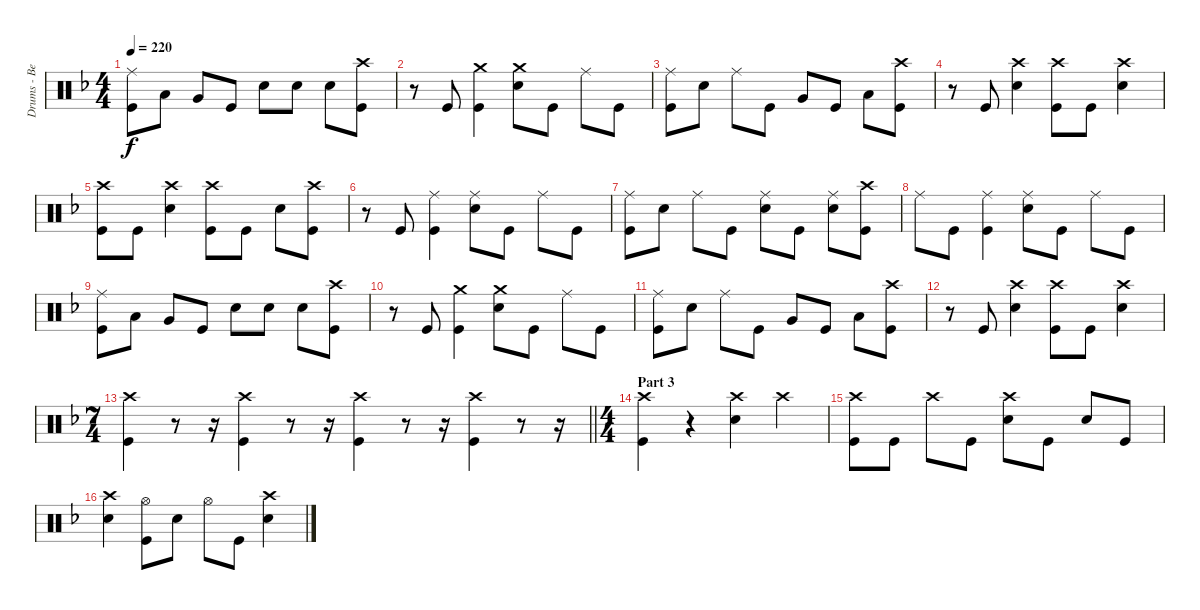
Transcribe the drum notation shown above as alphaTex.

\track ("Drums - Ben Johnston" "Drums - Be") {instrument percussion}
\staff {score}
\articulation defaults
\ts (4 4)
\tempo 220
\clef neutral
\ks dminor
("Ride (middle)" "Kick (hit)").8{dy f} "Low Tom (hit)".8 "Very Low Tom (hit)".8 "Kick (hit)".8 "Snare (hit) 2".8 "Snare (hit) 2".8 "Snare (hit) 2".8 ("Crash high (hit)" "Kick (hit)").8 |
r.8 "Kick (hit)".8 ("Crash medium (hit)" "Kick (hit)").4 ("Crash medium (hit)" "Snare (hit) 2").8 "Kick (hit)".8 "Ride (middle)".8 "Kick (hit)".8 |
("Ride (middle)" "Kick (hit)").8 "Snare (hit) 2".8 "Ride (middle)".8 "Kick (hit)".8 "Very Low Tom (hit)".8 "Kick (hit)".8 "Low Floor Tom (hit)".8 ("Crash high (hit)" "Kick (hit)").8 |
r.8 "Kick (hit)".8 ("Crash high (hit)" "Snare (hit) 2").4 ("Crash high (hit)" "Kick (hit)").8 "Kick (hit)".8 ("Crash high (hit)" "Snare (hit) 2").4 |
("Crash high (hit)" "Kick (hit)").8 "Kick (hit)".8 ("Crash high (hit)" "Snare (hit) 2").4 ("Crash high (hit)" "Kick (hit)").8 "Kick (hit)".8 "Snare (hit) 2".8 ("Crash high (hit)" "Kick (hit)").8 |
r.8 "Kick (hit)".8 ("Ride (middle)" "Kick (hit)").4 ("Ride (middle)" "Snare (hit) 2").8 "Kick (hit)".8 "Ride (middle)".8 "Kick (hit)".8 |
("Ride (middle)" "Kick (hit)").8 "Snare (hit) 2".8 "Ride (middle)".8 "Kick (hit)".8 ("Ride (middle)" "Snare (hit) 2").8 "Kick (hit)".8 ("Ride (middle)" "Snare (hit) 2").8 ("Crash high (hit)" "Kick (hit)").8 |
"Ride (middle)".8 "Kick (hit)".8 ("Ride (middle)" "Kick (hit)").4 ("Ride (middle)" "Snare (hit) 2").8 "Kick (hit)".8 "Ride (middle)".8 "Kick (hit)".8 |
("Ride (middle)" "Kick (hit)").8 "Low Tom (hit)".8 "Very Low Tom (hit)".8 "Kick (hit)".8 "Snare (hit) 2".8 "Snare (hit) 2".8 "Snare (hit) 2".8 ("Crash high (hit)" "Kick (hit)").8 |
r.8 "Kick (hit)".8 ("Crash medium (hit)" "Kick (hit)").4 ("Crash medium (hit)" "Snare (hit) 2").8 "Kick (hit)".8 "Ride (middle)".8 "Kick (hit)".8 |
("Ride (middle)" "Kick (hit)").8 "Snare (hit) 2".8 "Ride (middle)".8 "Kick (hit)".8 "Very Low Tom (hit)".8 "Kick (hit)".8 "Low Floor Tom (hit)".8 ("Crash high (hit)" "Kick (hit)").8 |
r.8 "Kick (hit)".8 ("Crash high (hit)" "Snare (hit) 2").4 ("Crash high (hit)" "Kick (hit)").8 "Kick (hit)".8 ("Crash high (hit)" "Snare (hit) 2").4 |
\ts (7 4)
\barLineRight lightlight
("Crash high (hit)" "Kick (hit)").4 r.8 r.16 ("Crash high (hit)" "Kick (hit)").4 r.8 r.16 ("Crash high (hit)" "Kick (hit)").4 r.8 r.16 ("Crash high (hit)" "Kick (hit)").4 r.8 r.16 |
\ts (4 4)
\section ("" "Part 3")
("Crash high (hit)" "Kick (hit)").4 r.4 ("Crash high (hit)" "Snare (hit) 2").4 "Crash high (hit)".4 |
("Crash high (hit)" "Kick (hit)").8 "Kick (hit)".8 "Crash high (hit)".8 "Kick (hit)".8 ("Crash high (hit)" "Snare (hit) 2").8 "Kick (hit)".8 "Snare (hit) 2".8 "Kick (hit)".8 |
("Crash high (hit)" "Snare (hit) 2").4 ("Hi-Hat (open)" "Kick (hit)").8 "Snare (hit) 2".8 "Hi-Hat (open)".8 "Kick (hit)".8 ("Crash high (hit)" "Snare (hit) 2").4
